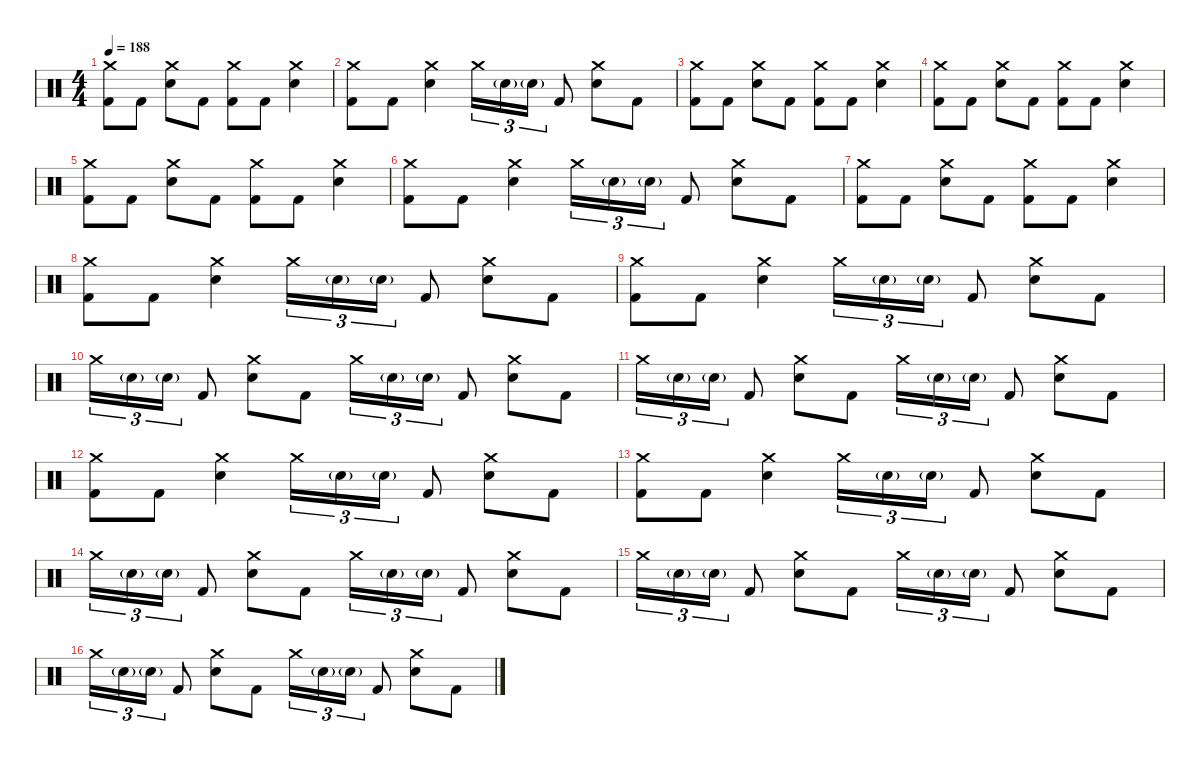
\defaultSystemsLayout 4
\hideDynamics
\bracketExtendMode nobrackets
\singleTrackTrackNamePolicy hidden
\multiTrackTrackNamePolicy hidden
\firstSystemTrackNameMode fullname
\firstSystemTrackNameOrientation horizontal
\otherSystemsTrackNameOrientation horizontal
\track ("Drums" "drm.") {instrument percussion}
\staff {score}
\articulation defaults
\ts (4 4)
\tempo 188
\clef neutral
\ks c
("Crash medium (hit)" "Kick (hit) 2").8{dy mf beam Down} "Kick (hit) 2".8{dy f beam Down} ("Crash medium (hit)" "Snare (hit) 2").8{dy mf beam Down} "Kick (hit) 2".8{dy f beam Down} ("Crash medium (hit)" "Kick (hit) 2").8{dy mf beam Down} "Kick (hit) 2".8{dy f beam Down} ("Crash medium (hit)" "Snare (hit) 2").4{dy mf beam Down} |
("Crash medium (hit)" "Kick (hit) 2").8{beam Down} "Kick (hit) 2".8{dy f beam Down} ("Crash medium (hit)" "Snare (hit) 2").4{dy mf beam Down} "Crash medium (hit)".16{tu (3 2) beam Down} "Snare (hit) 2"{g}.16{tu (3 2) dy ff beam Down} "Snare (hit) 2"{g}.16{tu (3 2) beam Down} "Kick (hit) 2".8{dy f beam Up} ("Crash medium (hit)" "Snare (hit) 2").8{dy mf beam Down} "Kick (hit) 2".8{dy f beam Down} |
("Crash medium (hit)" "Kick (hit) 2").8{dy mf beam Down} "Kick (hit) 2".8{dy f beam Down} ("Crash medium (hit)" "Snare (hit) 2").8{dy mf beam Down} "Kick (hit) 2".8{dy f beam Down} ("Crash medium (hit)" "Kick (hit) 2").8{dy mf beam Down} "Kick (hit) 2".8{dy f beam Down} ("Crash medium (hit)" "Snare (hit) 2").4{dy mf beam Down} |
("Crash medium (hit)" "Kick (hit) 2").8{beam Down} "Kick (hit) 2".8{dy f beam Down} ("Crash medium (hit)" "Snare (hit) 2").8{dy mf beam Down} "Kick (hit) 2".8{dy f beam Down} ("Crash medium (hit)" "Kick (hit) 2").8{dy mf beam Down} "Kick (hit) 2".8{dy f beam Down} ("Crash medium (hit)" "Snare (hit) 2").4{dy mf beam Down} |
("Crash medium (hit)" "Kick (hit) 2").8{beam Down} "Kick (hit) 2".8{dy f beam Down} ("Crash medium (hit)" "Snare (hit) 2").8{dy mf beam Down} "Kick (hit) 2".8{dy f beam Down} ("Crash medium (hit)" "Kick (hit) 2").8{dy mf beam Down} "Kick (hit) 2".8{dy f beam Down} ("Crash medium (hit)" "Snare (hit) 2").4{dy mf beam Down} |
("Crash medium (hit)" "Kick (hit) 2").8{beam Down} "Kick (hit) 2".8{dy f beam Down} ("Crash medium (hit)" "Snare (hit) 2").4{dy mf beam Down} "Crash medium (hit)".16{tu (3 2) beam Down} "Snare (hit) 2"{g}.16{tu (3 2) dy ff beam Down} "Snare (hit) 2"{g}.16{tu (3 2) beam Down} "Kick (hit) 2".8{dy f beam Up} ("Crash medium (hit)" "Snare (hit) 2").8{dy mf beam Down} "Kick (hit) 2".8{dy f beam Down} |
("Crash medium (hit)" "Kick (hit) 2").8{dy mf beam Down} "Kick (hit) 2".8{dy f beam Down} ("Crash medium (hit)" "Snare (hit) 2").8{dy mf beam Down} "Kick (hit) 2".8{dy f beam Down} ("Crash medium (hit)" "Kick (hit) 2").8{dy mf beam Down} "Kick (hit) 2".8{dy f beam Down} ("Crash medium (hit)" "Snare (hit) 2").4{dy mf beam Down} |
("Crash medium (hit)" "Kick (hit) 2").8{beam Down} "Kick (hit) 2".8{dy f beam Down} ("Crash medium (hit)" "Snare (hit) 2").4{dy mf beam Down} "Crash medium (hit)".16{tu (3 2) beam Down} "Snare (hit) 2"{g}.16{tu (3 2) dy ff beam Down} "Snare (hit) 2"{g}.16{tu (3 2) beam Down} "Kick (hit) 2".8{dy f beam Up} ("Crash medium (hit)" "Snare (hit) 2").8{dy mf beam Down} "Kick (hit) 2".8{dy f beam Down} |
("Crash medium (hit)" "Kick (hit) 2").8{dy mf beam Down} "Kick (hit) 2".8{dy f beam Down} ("Crash medium (hit)" "Snare (hit) 2").4{dy mf beam Down} "Crash medium (hit)".16{tu (3 2) beam Down} "Snare (hit) 2"{g}.16{tu (3 2) dy ff beam Down} "Snare (hit) 2"{g}.16{tu (3 2) beam Down} "Kick (hit) 2".8{dy f beam Up} ("Crash medium (hit)" "Snare (hit) 2").8{dy mf beam Down} "Kick (hit) 2".8{dy f beam Down} |
"Crash medium (hit)".16{tu (3 2) dy mf beam Down} "Snare (hit) 2"{g}.16{tu (3 2) dy ff beam Down} "Snare (hit) 2"{g}.16{tu (3 2) beam Down} "Kick (hit) 2".8{dy f beam Up} ("Crash medium (hit)" "Snare (hit) 2").8{dy mf beam Down} "Kick (hit) 2".8{dy f beam Down} "Crash medium (hit)".16{tu (3 2) dy mf beam Down} "Snare (hit) 2"{g}.16{tu (3 2) dy ff beam Down} "Snare (hit) 2"{g}.16{tu (3 2) beam Down} "Kick (hit) 2".8{dy f beam Up} ("Crash medium (hit)" "Snare (hit) 2").8{dy mf beam Down} "Kick (hit) 2".8{dy f beam Down} |
"Crash medium (hit)".16{tu (3 2) dy mf beam Down} "Snare (hit) 2"{g}.16{tu (3 2) dy ff beam Down} "Snare (hit) 2"{g}.16{tu (3 2) beam Down} "Kick (hit) 2".8{dy f beam Up} ("Crash medium (hit)" "Snare (hit) 2").8{dy mf beam Down} "Kick (hit) 2".8{dy f beam Down} "Crash medium (hit)".16{tu (3 2) dy mf beam Down} "Snare (hit) 2"{g}.16{tu (3 2) dy ff beam Down} "Snare (hit) 2"{g}.16{tu (3 2) beam Down} "Kick (hit) 2".8{dy f beam Up} ("Crash medium (hit)" "Snare (hit) 2").8{dy mf beam Down} "Kick (hit) 2".8{dy f beam Down} |
("Crash medium (hit)" "Kick (hit) 2").8{dy mf beam Down} "Kick (hit) 2".8{dy f beam Down} ("Crash medium (hit)" "Snare (hit) 2").4{dy mf beam Down} "Crash medium (hit)".16{tu (3 2) beam Down} "Snare (hit) 2"{g}.16{tu (3 2) dy ff beam Down} "Snare (hit) 2"{g}.16{tu (3 2) beam Down} "Kick (hit) 2".8{dy f beam Up} ("Crash medium (hit)" "Snare (hit) 2").8{dy mf beam Down} "Kick (hit) 2".8{dy f beam Down} |
("Crash medium (hit)" "Kick (hit) 2").8{dy mf beam Down} "Kick (hit) 2".8{dy f beam Down} ("Crash medium (hit)" "Snare (hit) 2").4{dy mf beam Down} "Crash medium (hit)".16{tu (3 2) beam Down} "Snare (hit) 2"{g}.16{tu (3 2) dy ff beam Down} "Snare (hit) 2"{g}.16{tu (3 2) beam Down} "Kick (hit) 2".8{dy f beam Up} ("Crash medium (hit)" "Snare (hit) 2").8{dy mf beam Down} "Kick (hit) 2".8{dy f beam Down} |
"Crash medium (hit)".16{tu (3 2) dy mf beam Down} "Snare (hit) 2"{g}.16{tu (3 2) dy ff beam Down} "Snare (hit) 2"{g}.16{tu (3 2) beam Down} "Kick (hit) 2".8{dy f beam Up} ("Crash medium (hit)" "Snare (hit) 2").8{dy mf beam Down} "Kick (hit) 2".8{dy f beam Down} "Crash medium (hit)".16{tu (3 2) dy mf beam Down} "Snare (hit) 2"{g}.16{tu (3 2) dy ff beam Down} "Snare (hit) 2"{g}.16{tu (3 2) beam Down} "Kick (hit) 2".8{dy f beam Up} ("Crash medium (hit)" "Snare (hit) 2").8{dy mf beam Down} "Kick (hit) 2".8{dy f beam Down} |
"Crash medium (hit)".16{tu (3 2) dy mf beam Down} "Snare (hit) 2"{g}.16{tu (3 2) dy ff beam Down} "Snare (hit) 2"{g}.16{tu (3 2) beam Down} "Kick (hit) 2".8{dy f beam Up} ("Crash medium (hit)" "Snare (hit) 2").8{dy mf beam Down} "Kick (hit) 2".8{dy f beam Down} "Crash medium (hit)".16{tu (3 2) dy mf beam Down} "Snare (hit) 2"{g}.16{tu (3 2) dy ff beam Down} "Snare (hit) 2"{g}.16{tu (3 2) beam Down} "Kick (hit) 2".8{dy f beam Up} ("Crash medium (hit)" "Snare (hit) 2").8{dy mf beam Down} "Kick (hit) 2".8{dy f beam Down} |
"Crash medium (hit)".16{tu (3 2) dy mf beam Down} "Snare (hit) 2"{g}.16{tu (3 2) dy ff beam Down} "Snare (hit) 2"{g}.16{tu (3 2) beam Down} "Kick (hit) 2".8{dy f beam Up} ("Crash medium (hit)" "Snare (hit) 2").8{dy mf beam Down} "Kick (hit) 2".8{dy f beam Down} "Crash medium (hit)".16{tu (3 2) dy mf beam Down} "Snare (hit) 2"{g}.16{tu (3 2) dy ff beam Down} "Snare (hit) 2"{g}.16{tu (3 2) beam Down} "Kick (hit) 2".8{dy f beam Up} ("Crash medium (hit)" "Snare (hit) 2").8{dy mf beam Down} "Kick (hit) 2".8{dy f beam Down}
